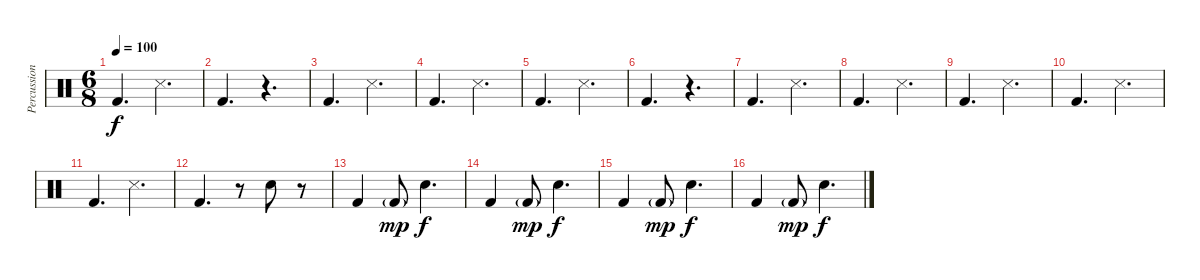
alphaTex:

\track ("Percussion" "Percussion") {instrument percussion}
\staff {score}
\articulation defaults
\ts (6 8)
\tempo 100
\clef neutral
\ks c "Kick (hit) 2".4{d dy f} "Snare (side stick) 3".4{d}
|
"Kick (hit) 2".4{d} r.4{d} |
"Kick (hit) 2".4{d} "Snare (side stick) 3".4{d} |
"Kick (hit) 2".4{d} "Snare (side stick) 3".4{d} |
"Kick (hit) 2".4{d} "Snare (side stick) 3".4{d} |
"Kick (hit) 2".4{d} r.4{d} |
"Kick (hit) 2".4{d} "Snare (side stick) 3".4{d} |
"Kick (hit) 2".4{d} "Snare (side stick) 3".4{d} |
"Kick (hit) 2".4{d} "Snare (side stick) 3".4{d} |
"Kick (hit) 2".4{d} "Snare (side stick) 3".4{d} |
"Kick (hit) 2".4{d} "Snare (side stick) 3".4{d} |
"Kick (hit) 2".4{d} r.8 "Snare (hit) 2".8 r.8 |
"Kick (hit) 2".4 "Kick (hit) 2"{g}.8{dy mp} "Snare (hit) 2".4{d dy f} |
"Kick (hit) 2".4 "Kick (hit) 2"{g}.8{dy mp} "Snare (hit) 2".4{d dy f} |
"Kick (hit) 2".4 "Kick (hit) 2"{g}.8{dy mp} "Snare (hit) 2".4{d dy f} |
"Kick (hit) 2".4 "Kick (hit) 2"{g}.8{dy mp} "Snare (hit) 2".4{d dy f}
